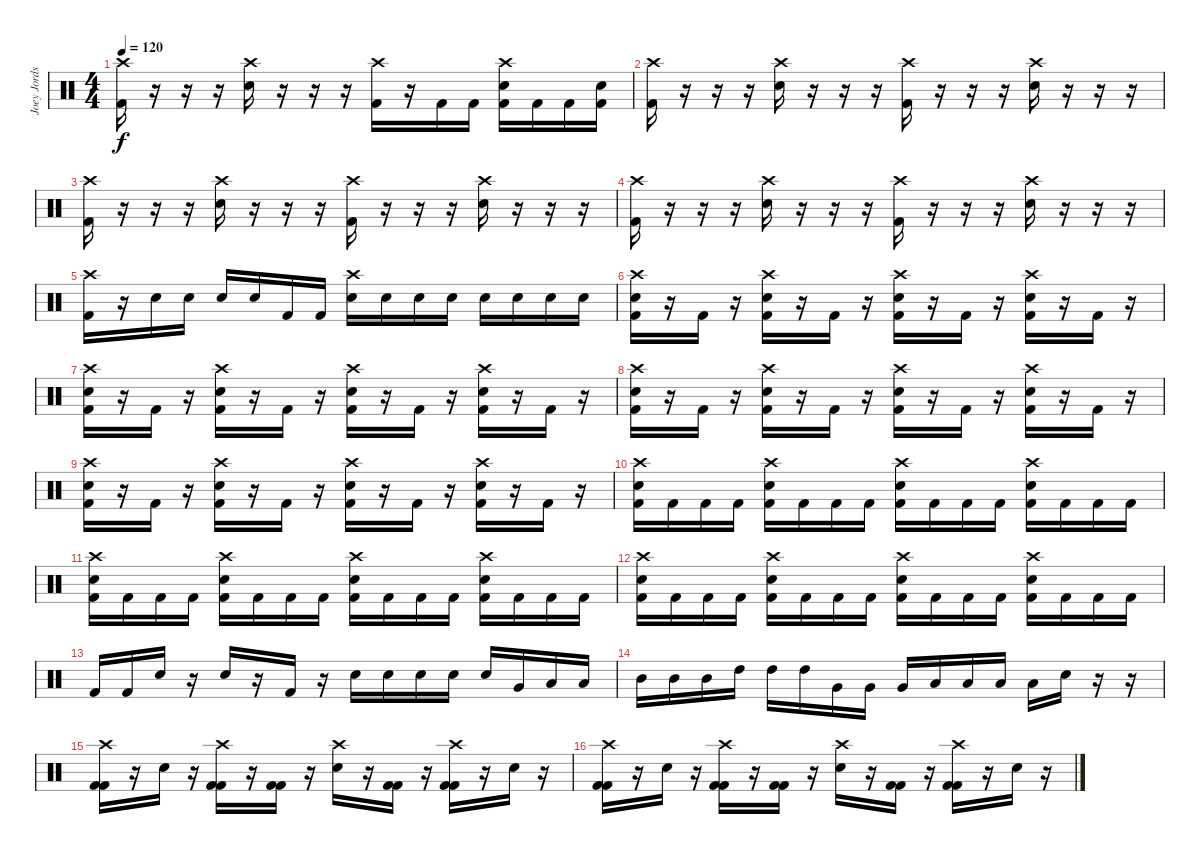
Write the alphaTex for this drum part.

\track ("Joey Jordson" "Joey Jords") {instrument percussion}
\staff {score}
\articulation defaults
\ts (4 4)
\tempo 120
\clef neutral
\ks c
("Crash high (hit)" "Kick (hit) 2").16{dy f} r.16 r.16 r.16 ("Crash high (hit)" "Electric Snare (hit)").16 r.16 r.16 r.16 ("Crash high (hit)" "Kick (hit) 2").16 r.16 "Kick (hit) 2".16 "Kick (hit) 2".16 ("Crash high (hit)" "Electric Snare (hit)" "Kick (hit) 2").16 "Kick (hit) 2".16 "Kick (hit) 2".16 ("Electric Snare (hit)" "Kick (hit) 2").16 |
("Crash high (hit)" "Kick (hit) 2").16 r.16 r.16 r.16 ("Crash high (hit)" "Electric Snare (hit)").16 r.16 r.16 r.16 ("Crash high (hit)" "Kick (hit) 2").16 r.16 r.16 r.16 ("Crash high (hit)" "Electric Snare (hit)").16 r.16 r.16 r.16 |
("Crash high (hit)" "Kick (hit) 2").16 r.16 r.16 r.16 ("Crash high (hit)" "Electric Snare (hit)").16 r.16 r.16 r.16 ("Crash high (hit)" "Kick (hit) 2").16 r.16 r.16 r.16 ("Crash high (hit)" "Electric Snare (hit)").16 r.16 r.16 r.16 |
("Crash high (hit)" "Kick (hit) 2").16 r.16 r.16 r.16 ("Crash high (hit)" "Electric Snare (hit)").16 r.16 r.16 r.16 ("Crash high (hit)" "Kick (hit) 2").16 r.16 r.16 r.16 ("Crash high (hit)" "Electric Snare (hit)").16 r.16 r.16 r.16 |
("Crash high (hit)" "Kick (hit) 2").16 r.16 "Electric Snare (hit)".16 "Electric Snare (hit)".16 "Electric Snare (hit)".16 "Electric Snare (hit)".16 "Kick (hit) 2".16 "Kick (hit) 2".16 ("Crash high (hit)" "Electric Snare (hit)").16 "Electric Snare (hit)".16 "Electric Snare (hit)".16 "Electric Snare (hit)".16 "Electric Snare (hit)".16 "Electric Snare (hit)".16 "Electric Snare (hit)".16 "Electric Snare (hit)".16 |
("Crash high (hit)" "Electric Snare (hit)" "Kick (hit) 2").16 r.16 "Kick (hit) 2".16 r.16 ("Crash high (hit)" "Electric Snare (hit)" "Kick (hit) 2").16 r.16 "Kick (hit) 2".16 r.16 ("Crash high (hit)" "Electric Snare (hit)" "Kick (hit) 2").16 r.16 "Kick (hit) 2".16 r.16 ("Crash high (hit)" "Electric Snare (hit)" "Kick (hit) 2").16 r.16 "Kick (hit) 2".16 r.16 |
("Crash high (hit)" "Electric Snare (hit)" "Kick (hit) 2").16 r.16 "Kick (hit) 2".16 r.16 ("Crash high (hit)" "Electric Snare (hit)" "Kick (hit) 2").16 r.16 "Kick (hit) 2".16 r.16 ("Crash high (hit)" "Electric Snare (hit)" "Kick (hit) 2").16 r.16 "Kick (hit) 2".16 r.16 ("Crash high (hit)" "Electric Snare (hit)" "Kick (hit) 2").16 r.16 "Kick (hit) 2".16 r.16 |
("Crash high (hit)" "Electric Snare (hit)" "Kick (hit) 2").16 r.16 "Kick (hit) 2".16 r.16 ("Crash high (hit)" "Electric Snare (hit)" "Kick (hit) 2").16 r.16 "Kick (hit) 2".16 r.16 ("Crash high (hit)" "Electric Snare (hit)" "Kick (hit) 2").16 r.16 "Kick (hit) 2".16 r.16 ("Crash high (hit)" "Electric Snare (hit)" "Kick (hit) 2").16 r.16 "Kick (hit) 2".16 r.16 |
("Crash high (hit)" "Electric Snare (hit)" "Kick (hit) 2").16 r.16 "Kick (hit) 2".16 r.16 ("Crash high (hit)" "Electric Snare (hit)" "Kick (hit) 2").16 r.16 "Kick (hit) 2".16 r.16 ("Crash high (hit)" "Electric Snare (hit)" "Kick (hit) 2").16 r.16 "Kick (hit) 2".16 r.16 ("Crash high (hit)" "Electric Snare (hit)" "Kick (hit) 2").16 r.16 "Kick (hit) 2".16 r.16 |
("Crash high (hit)" "Electric Snare (hit)" "Kick (hit) 2").16 "Kick (hit) 2".16 "Kick (hit) 2".16 "Kick (hit) 2".16 ("Crash high (hit)" "Electric Snare (hit)" "Kick (hit) 2").16 "Kick (hit) 2".16 "Kick (hit) 2".16 "Kick (hit) 2".16 ("Crash high (hit)" "Electric Snare (hit)" "Kick (hit) 2").16 "Kick (hit) 2".16 "Kick (hit) 2".16 "Kick (hit) 2".16 ("Crash high (hit)" "Electric Snare (hit)" "Kick (hit) 2").16 "Kick (hit) 2".16 "Kick (hit) 2".16 "Kick (hit) 2".16 |
("Crash high (hit)" "Electric Snare (hit)" "Kick (hit) 2").16 "Kick (hit) 2".16 "Kick (hit) 2".16 "Kick (hit) 2".16 ("Crash high (hit)" "Electric Snare (hit)" "Kick (hit) 2").16 "Kick (hit) 2".16 "Kick (hit) 2".16 "Kick (hit) 2".16 ("Crash high (hit)" "Electric Snare (hit)" "Kick (hit) 2").16 "Kick (hit) 2".16 "Kick (hit) 2".16 "Kick (hit) 2".16 ("Crash high (hit)" "Electric Snare (hit)" "Kick (hit) 2").16 "Kick (hit) 2".16 "Kick (hit) 2".16 "Kick (hit) 2".16 |
("Crash high (hit)" "Electric Snare (hit)" "Kick (hit) 2").16 "Kick (hit) 2".16 "Kick (hit) 2".16 "Kick (hit) 2".16 ("Crash high (hit)" "Electric Snare (hit)" "Kick (hit) 2").16 "Kick (hit) 2".16 "Kick (hit) 2".16 "Kick (hit) 2".16 ("Crash high (hit)" "Electric Snare (hit)" "Kick (hit) 2").16 "Kick (hit) 2".16 "Kick (hit) 2".16 "Kick (hit) 2".16 ("Crash high (hit)" "Electric Snare (hit)" "Kick (hit) 2").16 "Kick (hit) 2".16 "Kick (hit) 2".16 "Kick (hit) 2".16 |
"Kick (hit) 2".16 "Kick (hit) 2".16 "Electric Snare (hit)".16 r.16 "Electric Snare (hit)".16 r.16 "Kick (hit) 2".16 r.16 "Electric Snare (hit)".16 "Electric Snare (hit)".16 "Electric Snare (hit)".16 "Electric Snare (hit)".16 "Electric Snare (hit)".16 "Very Low Tom (hit)".16 "Low Tom (hit)".16 "Low Tom (hit)".16 |
"Mid Tom (hit)".16 "Mid Tom (hit)".16 "Mid Tom (hit)".16 "High Tom (hit)".16 "High Tom (hit)".16 "High Tom (hit)".16 "Very Low Tom (hit)".16 "Very Low Tom (hit)".16 "Very Low Tom (hit)".16 "Low Tom (hit)".16 "Low Tom (hit)".16 "Low Tom (hit)".16 "Low Tom (hit)".16 "Electric Snare (hit)".16 r.16 r.16 |
("Crash high (hit)" "Kick (hit) 2" "Kick (hit) 2").16 r.16 "Electric Snare (hit)".16 r.16 ("Crash high (hit)" "Kick (hit) 2" "Kick (hit) 2").16 r.16 ("Kick (hit) 2" "Kick (hit) 2").16 r.16 ("Crash high (hit)" "Electric Snare (hit)").16 r.16 ("Kick (hit) 2" "Kick (hit) 2").16 r.16 ("Crash high (hit)" "Kick (hit) 2" "Kick (hit) 2").16 r.16 "Electric Snare (hit)".16 r.16 |
("Crash high (hit)" "Kick (hit) 2" "Kick (hit) 2").16 r.16 "Electric Snare (hit)".16 r.16 ("Crash high (hit)" "Kick (hit) 2" "Kick (hit) 2").16 r.16 ("Kick (hit) 2" "Kick (hit) 2").16 r.16 ("Crash high (hit)" "Electric Snare (hit)").16 r.16 ("Kick (hit) 2" "Kick (hit) 2").16 r.16 ("Crash high (hit)" "Kick (hit) 2" "Kick (hit) 2").16 r.16 "Electric Snare (hit)".16 r.16
